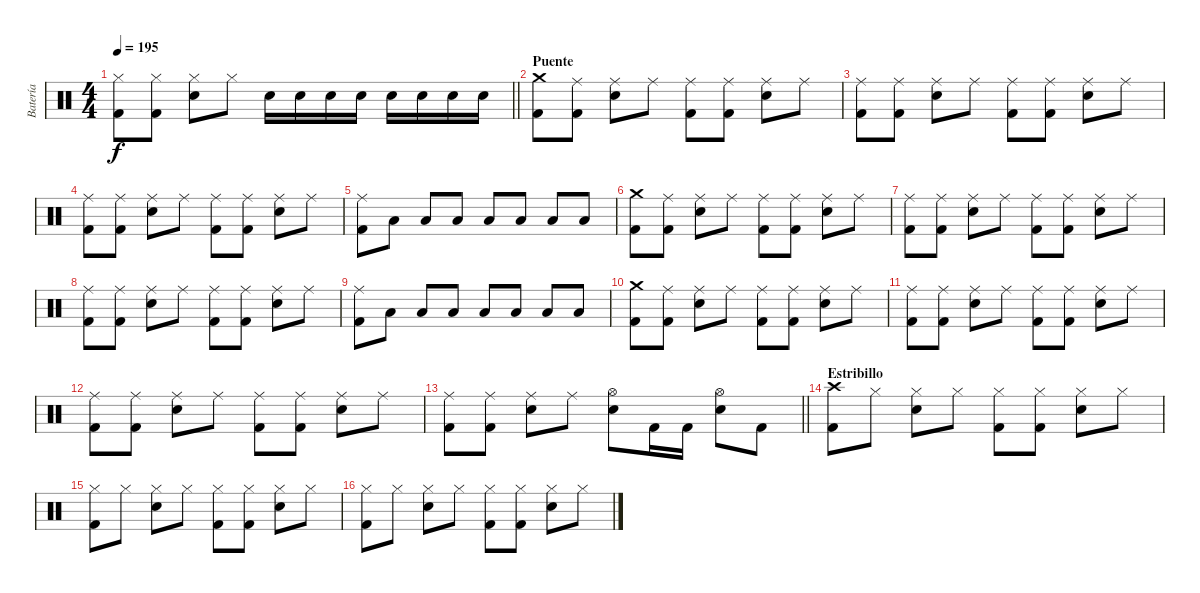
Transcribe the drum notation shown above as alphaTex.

\track ("Batería" "Batería") {instrument percussion}
\staff {score}
\articulation defaults
\ts (4 4)
\tempo 195
\clef neutral
\barLineRight lightlight
\ks c
("Hi-Hat (closed)" "Kick (hit) 2").8{dy f} ("Hi-Hat (closed)" "Kick (hit) 2").8 ("Hi-Hat (closed)" "Snare (hit) 2").8 "Hi-Hat (closed)".8 "Snare (hit) 2".16 "Snare (hit) 2".16 "Snare (hit) 2".16 "Snare (hit) 2".16 "Snare (hit) 2".16 "Snare (hit) 2".16 "Snare (hit) 2".16 "Snare (hit) 2".16 |
\section ("" "Puente")
("Crash medium (hit)" "Kick (hit) 2").8 ("Ride (middle)" "Kick (hit) 2").8 ("Ride (middle)" "Snare (hit) 2").8 "Ride (middle)".8 ("Ride (middle)" "Kick (hit) 2").8 ("Ride (middle)" "Kick (hit) 2").8 ("Ride (middle)" "Snare (hit) 2").8 "Ride (middle)".8 |
("Ride (middle)" "Kick (hit) 2").8 ("Ride (middle)" "Kick (hit) 2").8 ("Ride (middle)" "Snare (hit) 2").8 "Ride (middle)".8 ("Ride (middle)" "Kick (hit) 2").8 ("Ride (middle)" "Kick (hit) 2").8 ("Ride (middle)" "Snare (hit) 2").8 "Ride (middle)".8 |
("Ride (middle)" "Kick (hit) 2").8 ("Ride (middle)" "Kick (hit) 2").8 ("Ride (middle)" "Snare (hit) 2").8 "Ride (middle)".8 ("Ride (middle)" "Kick (hit) 2").8 ("Ride (middle)" "Kick (hit) 2").8 ("Ride (middle)" "Snare (hit) 2").8 "Ride (middle)".8 |
("Ride (middle)" "Kick (hit) 2").8 "Low Tom (hit)".8 "Low Floor Tom (hit)".8 "Low Floor Tom (hit)".8 "Low Tom (hit)".8 "Low Floor Tom (hit)".8 "Low Floor Tom (hit)".8 "Low Tom (hit)".8 |
("Crash medium (hit)" "Kick (hit) 2").8 ("Ride (middle)" "Kick (hit) 2").8 ("Ride (middle)" "Snare (hit) 2").8 "Ride (middle)".8 ("Ride (middle)" "Kick (hit) 2").8 ("Ride (middle)" "Kick (hit) 2").8 ("Ride (middle)" "Snare (hit) 2").8 "Ride (middle)".8 |
("Ride (middle)" "Kick (hit) 2").8 ("Ride (middle)" "Kick (hit) 2").8 ("Ride (middle)" "Snare (hit) 2").8 "Ride (middle)".8 ("Ride (middle)" "Kick (hit) 2").8 ("Ride (middle)" "Kick (hit) 2").8 ("Ride (middle)" "Snare (hit) 2").8 "Ride (middle)".8 |
("Ride (middle)" "Kick (hit) 2").8 ("Ride (middle)" "Kick (hit) 2").8 ("Ride (middle)" "Snare (hit) 2").8 "Ride (middle)".8 ("Ride (middle)" "Kick (hit) 2").8 ("Ride (middle)" "Kick (hit) 2").8 ("Ride (middle)" "Snare (hit) 2").8 "Ride (middle)".8 |
("Ride (middle)" "Kick (hit) 2").8 "Low Tom (hit)".8 "Low Floor Tom (hit)".8 "Low Floor Tom (hit)".8 "Low Tom (hit)".8 "Low Floor Tom (hit)".8 "Low Floor Tom (hit)".8 "Low Tom (hit)".8 |
("Crash medium (hit)" "Kick (hit) 2").8 ("Ride (middle)" "Kick (hit) 2").8 ("Ride (middle)" "Snare (hit) 2").8 "Ride (middle)".8 ("Ride (middle)" "Kick (hit) 2").8 ("Ride (middle)" "Kick (hit) 2").8 ("Ride (middle)" "Snare (hit) 2").8 "Ride (middle)".8 |
("Ride (middle)" "Kick (hit) 2").8 ("Ride (middle)" "Kick (hit) 2").8 ("Ride (middle)" "Snare (hit) 2").8 "Ride (middle)".8 ("Ride (middle)" "Kick (hit) 2").8 ("Ride (middle)" "Kick (hit) 2").8 ("Ride (middle)" "Snare (hit) 2").8 "Ride (middle)".8 |
("Ride (middle)" "Kick (hit) 2").8 ("Ride (middle)" "Kick (hit) 2").8 ("Ride (middle)" "Snare (hit) 2").8 "Ride (middle)".8 ("Ride (middle)" "Kick (hit) 2").8 ("Ride (middle)" "Kick (hit) 2").8 ("Ride (middle)" "Snare (hit) 2").8 "Ride (middle)".8 |
\barLineRight lightlight
("Ride (middle)" "Kick (hit) 2").8 ("Ride (middle)" "Kick (hit) 2").8 ("Ride (middle)" "Snare (hit) 2").8 "Ride (middle)".8 ("Hi-Hat (open)" "Snare (hit) 2").8 "Kick (hit) 2".16 "Kick (hit) 2".16 ("Hi-Hat (open)" "Snare (hit) 2").8 "Kick (hit) 2".8 |
\section ("" "Estribillo")
("Crash high (hit)" "Kick (hit) 2").8 "Hi-Hat (closed)".8 ("Hi-Hat (closed)" "Snare (hit) 2").8 "Hi-Hat (closed)".8 ("Hi-Hat (closed)" "Kick (hit) 2").8 ("Hi-Hat (closed)" "Kick (hit) 2").8 ("Hi-Hat (closed)" "Snare (hit) 2").8 "Hi-Hat (closed)".8 |
("Hi-Hat (closed)" "Kick (hit) 2").8 "Hi-Hat (closed)".8 ("Hi-Hat (closed)" "Snare (hit) 2").8 "Hi-Hat (closed)".8 ("Hi-Hat (closed)" "Kick (hit) 2").8 ("Hi-Hat (closed)" "Kick (hit) 2").8 ("Hi-Hat (closed)" "Snare (hit) 2").8 "Hi-Hat (closed)".8 |
("Hi-Hat (closed)" "Kick (hit) 2").8 "Hi-Hat (closed)".8 ("Hi-Hat (closed)" "Snare (hit) 2").8 "Hi-Hat (closed)".8 ("Hi-Hat (closed)" "Kick (hit) 2").8 ("Hi-Hat (closed)" "Kick (hit) 2").8 ("Hi-Hat (closed)" "Snare (hit) 2").8 "Hi-Hat (closed)".8
